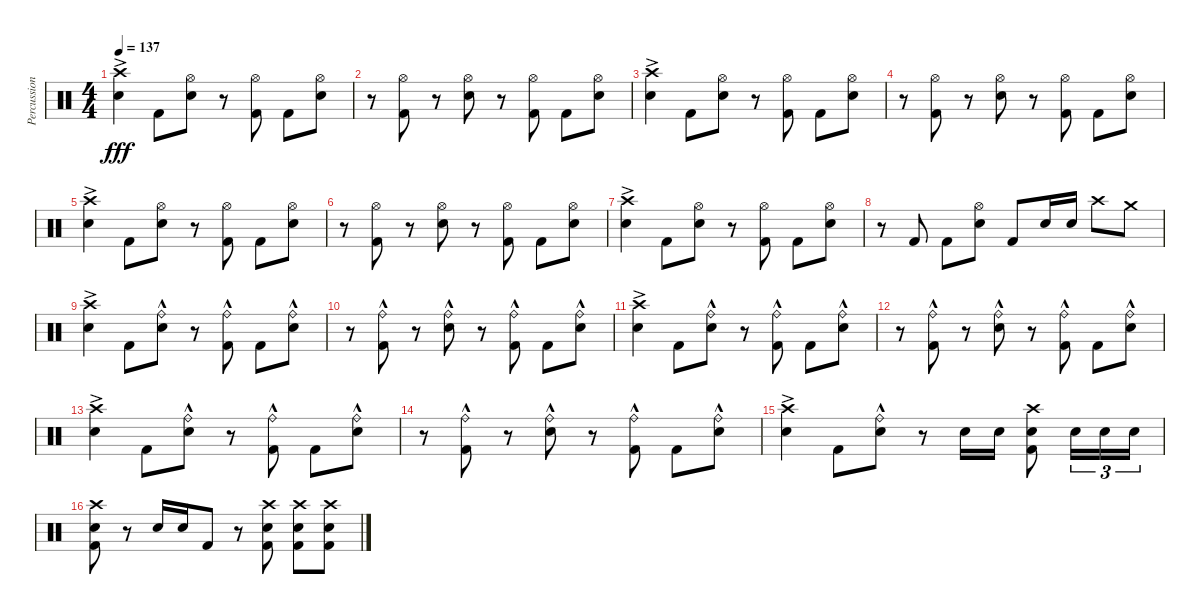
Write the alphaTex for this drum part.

\track ("Percussion" "Percussion") {solo instrument percussion}
\staff {score}
\articulation defaults
\ts (4 4)
\tempo 137
\clef neutral
\ks c
("Crash high (hit)"{ac} "Electric Snare (hit)"{ac}).4{dy fff} "Kick (hit) 2".8 ("Electric Snare (hit)" "Hi-Hat (open)").8 r.8 ("Kick (hit) 2" "Hi-Hat (open)").8 "Kick (hit) 2".8 ("Electric Snare (hit)" "Hi-Hat (open)").8 |
r.8 ("Kick (hit) 2" "Hi-Hat (open)").8 r.8 ("Electric Snare (hit)" "Hi-Hat (open)").8 r.8 ("Kick (hit) 2" "Hi-Hat (open)").8 "Kick (hit) 2".8 ("Electric Snare (hit)" "Hi-Hat (open)").8 |
("Crash high (hit)"{ac} "Electric Snare (hit)"{ac}).4 "Kick (hit) 2".8 ("Electric Snare (hit)" "Hi-Hat (open)").8 r.8 ("Kick (hit) 2" "Hi-Hat (open)").8 "Kick (hit) 2".8 ("Electric Snare (hit)" "Hi-Hat (open)").8 |
r.8 ("Kick (hit) 2" "Hi-Hat (open)").8 r.8 ("Electric Snare (hit)" "Hi-Hat (open)").8 r.8 ("Kick (hit) 2" "Hi-Hat (open)").8 "Kick (hit) 2".8 ("Electric Snare (hit)" "Hi-Hat (open)").8 |
("Crash high (hit)"{ac} "Electric Snare (hit)"{ac}).4 "Kick (hit) 2".8 ("Electric Snare (hit)" "Hi-Hat (open)").8 r.8 ("Kick (hit) 2" "Hi-Hat (open)").8 "Kick (hit) 2".8 ("Electric Snare (hit)" "Hi-Hat (open)").8 |
r.8 ("Kick (hit) 2" "Hi-Hat (open)").8 r.8 ("Electric Snare (hit)" "Hi-Hat (open)").8 r.8 ("Kick (hit) 2" "Hi-Hat (open)").8 "Kick (hit) 2".8 ("Electric Snare (hit)" "Hi-Hat (open)").8 |
("Crash high (hit)"{ac} "Electric Snare (hit)"{ac}).4 "Kick (hit) 2".8 ("Electric Snare (hit)" "Hi-Hat (open)").8 r.8 ("Kick (hit) 2" "Hi-Hat (open)").8 "Kick (hit) 2".8 ("Electric Snare (hit)" "Hi-Hat (open)").8 |
r.8 "Kick (hit) 2".8 "Kick (hit) 2".8 ("Electric Snare (hit)" "Hi-Hat (open)").8 "Kick (hit) 2".8 "Electric Snare (hit)".16 "Electric Snare (hit)".16 "Crash high (hit)".8 "Crash medium (hit)".8 |
("Crash high (hit)"{ac} "Electric Snare (hit)"{ac}).4 "Kick (hit) 2".8 ("Electric Snare (hit)" "Ride (bell)"{hac}).8 r.8 ("Kick (hit) 2" "Ride (bell)"{hac}).8 "Kick (hit) 2".8 ("Electric Snare (hit)" "Ride (bell)"{hac}).8 |
r.8 ("Kick (hit) 2" "Ride (bell)"{hac}).8 r.8 ("Electric Snare (hit)" "Ride (bell)"{hac}).8 r.8 ("Kick (hit) 2" "Ride (bell)"{hac}).8 "Kick (hit) 2".8 ("Electric Snare (hit)" "Ride (bell)"{hac}).8 |
("Crash high (hit)"{ac} "Electric Snare (hit)"{ac}).4 "Kick (hit) 2".8 ("Electric Snare (hit)" "Ride (bell)"{hac}).8 r.8 ("Kick (hit) 2" "Ride (bell)"{hac}).8 "Kick (hit) 2".8 ("Electric Snare (hit)" "Ride (bell)"{hac}).8 |
r.8 ("Kick (hit) 2" "Ride (bell)"{hac}).8 r.8 ("Electric Snare (hit)" "Ride (bell)"{hac}).8 r.8 ("Kick (hit) 2" "Ride (bell)"{hac}).8 "Kick (hit) 2".8 ("Electric Snare (hit)" "Ride (bell)"{hac}).8 |
("Crash high (hit)"{ac} "Electric Snare (hit)"{ac}).4 "Kick (hit) 2".8 ("Electric Snare (hit)" "Ride (bell)"{hac}).8 r.8 ("Kick (hit) 2" "Ride (bell)"{hac}).8 "Kick (hit) 2".8 ("Electric Snare (hit)" "Ride (bell)"{hac}).8 |
r.8 ("Kick (hit) 2" "Ride (bell)"{hac}).8 r.8 ("Electric Snare (hit)" "Ride (bell)"{hac}).8 r.8 ("Kick (hit) 2" "Ride (bell)"{hac}).8 "Kick (hit) 2".8 ("Electric Snare (hit)" "Ride (bell)"{hac}).8 |
("Crash high (hit)"{ac} "Electric Snare (hit)"{ac}).4 "Kick (hit) 2".8 ("Electric Snare (hit)" "Ride (bell)"{hac}).8 r.8 "Electric Snare (hit)".16 "Electric Snare (hit)".16 ("Crash high (hit)" "Snare (hit) 2" "Kick (hit) 2").8 "Electric Snare (hit)".16{tu (3 2)} "Electric Snare (hit)".16{tu (3 2)} "Electric Snare (hit)".16{tu (3 2)} |
("Crash high (hit)" "Kick (hit) 2" "Electric Snare (hit)").8 r.8 "Electric Snare (hit)".16 "Electric Snare (hit)".16 "Kick (hit) 2".8 r.8 ("Crash high (hit)" "Electric Snare (hit)" "Kick (hit) 2").8 ("Crash high (hit)" "Electric Snare (hit)" "Kick (hit) 2").8 ("Crash high (hit)" "Electric Snare (hit)" "Kick (hit) 2").8
